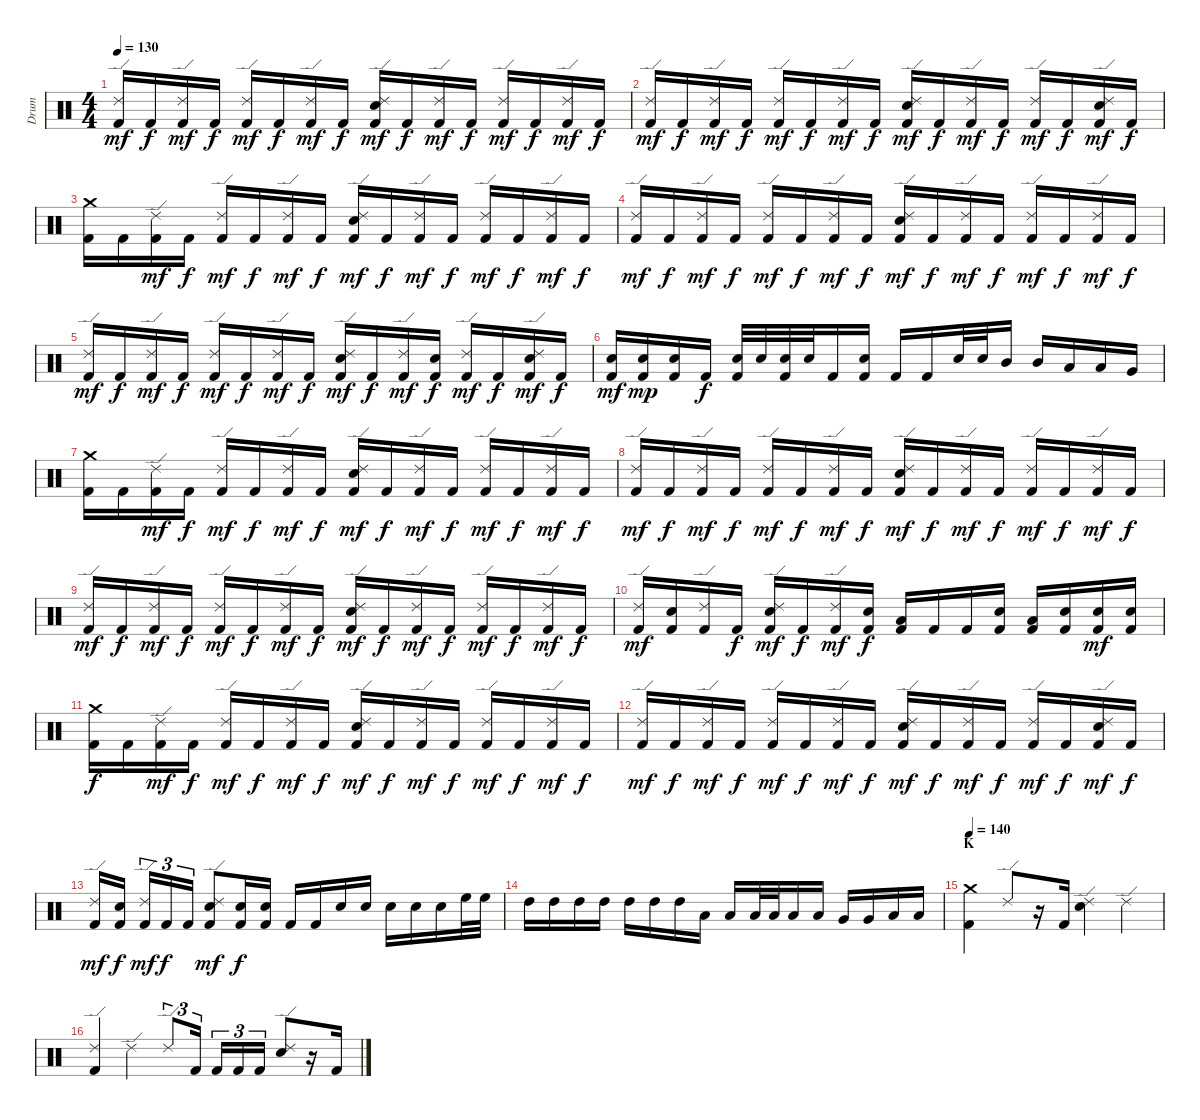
\track ("Drum" "Drum") {instrument percussion}
\staff {score}
\articulation defaults
\ts (4 4)
\tempo 130
\clef neutral
\ks c
("Ride (edge) 2" "Kick (hit) 2").16{dy mf} "Kick (hit) 2".16{dy f} ("Ride (edge) 2" "Kick (hit) 2").16{dy mf} "Kick (hit) 2".16{dy f} ("Ride (edge) 2" "Kick (hit) 2").16{dy mf} "Kick (hit) 2".16{dy f} ("Ride (edge) 2" "Kick (hit) 2").16{dy mf} "Kick (hit) 2".16{dy f} ("Ride (edge) 2" "Electric Snare (hit)" "Kick (hit) 2").16{dy mf} "Kick (hit) 2".16{dy f} ("Ride (edge) 2" "Kick (hit) 2").16{dy mf} "Kick (hit) 2".16{dy f} ("Ride (edge) 2" "Kick (hit) 2").16{dy mf} "Kick (hit) 2".16{dy f} ("Ride (edge) 2" "Kick (hit) 2").16{dy mf} "Kick (hit) 2".16{dy f} |
("Ride (edge) 2" "Kick (hit) 2").16{dy mf} "Kick (hit) 2".16{dy f} ("Ride (edge) 2" "Kick (hit) 2").16{dy mf} "Kick (hit) 2".16{dy f} ("Ride (edge) 2" "Kick (hit) 2").16{dy mf} "Kick (hit) 2".16{dy f} ("Ride (edge) 2" "Kick (hit) 2").16{dy mf} "Kick (hit) 2".16{dy f} ("Ride (edge) 2" "Electric Snare (hit)" "Kick (hit) 2").16{dy mf} "Kick (hit) 2".16{dy f} ("Ride (edge) 2" "Kick (hit) 2").16{dy mf} "Kick (hit) 2".16{dy f} ("Ride (edge) 2" "Kick (hit) 2").16{dy mf} "Kick (hit) 2".16{dy f} ("Ride (edge) 2" "Electric Snare (hit)" "Kick (hit) 2").16{dy mf} "Kick (hit) 2".16{dy f} |
("Crash medium (hit)" "Kick (hit) 2").16 "Kick (hit) 2".16 ("Ride (edge) 2" "Kick (hit) 2").16{dy mf} "Kick (hit) 2".16{dy f} ("Ride (edge) 2" "Kick (hit) 2").16{dy mf} "Kick (hit) 2".16{dy f} ("Ride (edge) 2" "Kick (hit) 2").16{dy mf} "Kick (hit) 2".16{dy f} ("Ride (edge) 2" "Electric Snare (hit)" "Kick (hit) 2").16{dy mf} "Kick (hit) 2".16{dy f} ("Ride (edge) 2" "Kick (hit) 2").16{dy mf} "Kick (hit) 2".16{dy f} ("Ride (edge) 2" "Kick (hit) 2").16{dy mf} "Kick (hit) 2".16{dy f} ("Ride (edge) 2" "Kick (hit) 2").16{dy mf} "Kick (hit) 2".16{dy f} |
("Ride (edge) 2" "Kick (hit) 2").16{dy mf} "Kick (hit) 2".16{dy f} ("Ride (edge) 2" "Kick (hit) 2").16{dy mf} "Kick (hit) 2".16{dy f} ("Ride (edge) 2" "Kick (hit) 2").16{dy mf} "Kick (hit) 2".16{dy f} ("Ride (edge) 2" "Kick (hit) 2").16{dy mf} "Kick (hit) 2".16{dy f} ("Ride (edge) 2" "Electric Snare (hit)" "Kick (hit) 2").16{dy mf} "Kick (hit) 2".16{dy f} ("Ride (edge) 2" "Kick (hit) 2").16{dy mf} "Kick (hit) 2".16{dy f} ("Ride (edge) 2" "Kick (hit) 2").16{dy mf} "Kick (hit) 2".16{dy f} ("Ride (edge) 2" "Kick (hit) 2").16{dy mf} "Kick (hit) 2".16{dy f} |
("Ride (edge) 2" "Kick (hit) 2").16{dy mf} "Kick (hit) 2".16{dy f} ("Ride (edge) 2" "Kick (hit) 2").16{dy mf} "Kick (hit) 2".16{dy f} ("Ride (edge) 2" "Kick (hit) 2").16{dy mf} "Kick (hit) 2".16{dy f} ("Ride (edge) 2" "Kick (hit) 2").16{dy mf} "Kick (hit) 2".16{dy f} ("Ride (edge) 2" "Electric Snare (hit)" "Kick (hit) 2").16{dy mf} "Kick (hit) 2".16{dy f} ("Ride (edge) 2" "Kick (hit) 2").16{dy mf} ("Electric Snare (hit)" "Kick (hit) 2").16{dy f} ("Ride (edge) 2" "Kick (hit) 2").16{dy mf} "Kick (hit) 2".16{dy f} ("Ride (edge) 2" "Electric Snare (hit)" "Kick (hit) 2").16{dy mf} "Kick (hit) 2".16{dy f} |
("Electric Snare (hit)" "Kick (hit) 2").16{dy mf} ("Electric Snare (hit)" "Kick (hit) 2").16{dy mp} ("Electric Snare (hit)" "Kick (hit) 2").16 "Kick (hit) 2".16{dy f} ("Electric Snare (hit)" "Kick (hit) 2").32 "Electric Snare (hit)".32 ("Electric Snare (hit)" "Kick (hit) 2").32 "Electric Snare (hit)".32 "Kick (hit) 2".16 ("Electric Snare (hit)" "Kick (hit) 2").16 "Kick (hit) 2".16 "Kick (hit) 2".16 "Electric Snare (hit)".32 "Electric Snare (hit)".32 "Mid Tom (hit)".16 "Mid Tom (hit)".16 "Low Tom (hit)".16 "Low Tom (hit)".16 "Very Low Tom (hit)".16 |
("Crash medium (hit)" "Kick (hit) 2").16 "Kick (hit) 2".16 ("Ride (edge) 2" "Kick (hit) 2").16{dy mf} "Kick (hit) 2".16{dy f} ("Ride (edge) 2" "Kick (hit) 2").16{dy mf} "Kick (hit) 2".16{dy f} ("Ride (edge) 2" "Kick (hit) 2").16{dy mf} "Kick (hit) 2".16{dy f} ("Ride (edge) 2" "Electric Snare (hit)" "Kick (hit) 2").16{dy mf} "Kick (hit) 2".16{dy f} ("Ride (edge) 2" "Kick (hit) 2").16{dy mf} "Kick (hit) 2".16{dy f} ("Ride (edge) 2" "Kick (hit) 2").16{dy mf} "Kick (hit) 2".16{dy f} ("Ride (edge) 2" "Kick (hit) 2").16{dy mf} "Kick (hit) 2".16{dy f} |
("Ride (edge) 2" "Kick (hit) 2").16{dy mf} "Kick (hit) 2".16{dy f} ("Ride (edge) 2" "Kick (hit) 2").16{dy mf} "Kick (hit) 2".16{dy f} ("Ride (edge) 2" "Kick (hit) 2").16{dy mf} "Kick (hit) 2".16{dy f} ("Ride (edge) 2" "Kick (hit) 2").16{dy mf} "Kick (hit) 2".16{dy f} ("Ride (edge) 2" "Electric Snare (hit)" "Kick (hit) 2").16{dy mf} "Kick (hit) 2".16{dy f} ("Ride (edge) 2" "Kick (hit) 2").16{dy mf} "Kick (hit) 2".16{dy f} ("Ride (edge) 2" "Kick (hit) 2").16{dy mf} "Kick (hit) 2".16{dy f} ("Ride (edge) 2" "Kick (hit) 2").16{dy mf} "Kick (hit) 2".16{dy f} |
("Ride (edge) 2" "Kick (hit) 2").16{dy mf} "Kick (hit) 2".16{dy f} ("Ride (edge) 2" "Kick (hit) 2").16{dy mf} "Kick (hit) 2".16{dy f} ("Ride (edge) 2" "Kick (hit) 2").16{dy mf} "Kick (hit) 2".16{dy f} ("Ride (edge) 2" "Kick (hit) 2").16{dy mf} "Kick (hit) 2".16{dy f} ("Ride (edge) 2" "Electric Snare (hit)" "Kick (hit) 2").16{dy mf} "Kick (hit) 2".16{dy f} ("Ride (edge) 2" "Kick (hit) 2").16{dy mf} "Kick (hit) 2".16{dy f} ("Ride (edge) 2" "Kick (hit) 2").16{dy mf} "Kick (hit) 2".16{dy f} ("Ride (edge) 2" "Kick (hit) 2").16{dy mf} "Kick (hit) 2".16{dy f} |
("Ride (edge) 2" "Kick (hit) 2").16{dy mf} ("Electric Snare (hit)" "Kick (hit) 2").16 ("Ride (edge) 2" "Kick (hit) 2").16 "Kick (hit) 2".16{dy f} ("Ride (edge) 2" "Electric Snare (hit)" "Kick (hit) 2").16{dy mf} "Kick (hit) 2".16{dy f} ("Ride (edge) 2" "Kick (hit) 2").16{dy mf} ("Electric Snare (hit)" "Kick (hit) 2").16{dy f} ("Low Tom (hit)" "Kick (hit) 2").16 "Kick (hit) 2".16 "Kick (hit) 2".16 ("Electric Snare (hit)" "Kick (hit) 2").16 ("Low Tom (hit)" "Kick (hit) 2").16 ("Electric Snare (hit)" "Kick (hit) 2").16 ("Electric Snare (hit)" "Kick (hit) 2").16{dy mf} ("Electric Snare (hit)" "Kick (hit) 2").16 |
("Crash medium (hit)" "Kick (hit) 2").16{dy f} "Kick (hit) 2".16 ("Ride (edge) 2" "Kick (hit) 2").16{dy mf} "Kick (hit) 2".16{dy f} ("Ride (edge) 2" "Kick (hit) 2").16{dy mf} "Kick (hit) 2".16{dy f} ("Ride (edge) 2" "Kick (hit) 2").16{dy mf} "Kick (hit) 2".16{dy f} ("Ride (edge) 2" "Electric Snare (hit)" "Kick (hit) 2").16{dy mf} "Kick (hit) 2".16{dy f} ("Ride (edge) 2" "Kick (hit) 2").16{dy mf} "Kick (hit) 2".16{dy f} ("Ride (edge) 2" "Kick (hit) 2").16{dy mf} "Kick (hit) 2".16{dy f} ("Ride (edge) 2" "Kick (hit) 2").16{dy mf} "Kick (hit) 2".16{dy f} |
("Ride (edge) 2" "Kick (hit) 2").16{dy mf} "Kick (hit) 2".16{dy f} ("Ride (edge) 2" "Kick (hit) 2").16{dy mf} "Kick (hit) 2".16{dy f} ("Ride (edge) 2" "Kick (hit) 2").16{dy mf} "Kick (hit) 2".16{dy f} ("Ride (edge) 2" "Kick (hit) 2").16{dy mf} "Kick (hit) 2".16{dy f} ("Ride (edge) 2" "Electric Snare (hit)" "Kick (hit) 2").16{dy mf} "Kick (hit) 2".16{dy f} ("Ride (edge) 2" "Kick (hit) 2").16{dy mf} "Kick (hit) 2".16{dy f} ("Ride (edge) 2" "Kick (hit) 2").16{dy mf} "Kick (hit) 2".16{dy f} ("Ride (edge) 2" "Electric Snare (hit)" "Kick (hit) 2").16{dy mf} "Kick (hit) 2".16{dy f} |
("Ride (edge) 2" "Kick (hit) 2").16{dy mf} ("Electric Snare (hit)" "Kick (hit) 2").16{dy f} ("Ride (edge) 2" "Kick (hit) 2").16{tu (3 2) dy mf} "Kick (hit) 2".16{tu (3 2) dy f} "Kick (hit) 2".16{tu (3 2)} ("Ride (edge) 2" "Electric Snare (hit)" "Kick (hit) 2").8{dy mf} ("Electric Snare (hit)" "Kick (hit) 2").16{dy f} ("Electric Snare (hit)" "Kick (hit) 2").16 "Kick (hit) 2".16 "Kick (hit) 2".16 "Electric Snare (hit)".16 "Electric Snare (hit)".16 "Electric Snare (hit)".16 "Electric Snare (hit)".16 "Electric Snare (hit)".16 "High Floor Tom (hit)".32 "High Floor Tom (hit)".32 |
"High Tom (hit)".16 "High Tom (hit)".16 "High Tom (hit)".16 "High Tom (hit)".16 "High Tom (hit)".16 "High Tom (hit)".16 "High Tom (hit)".16 "Low Tom (hit)".16 "Low Tom (hit)".16 "Low Tom (hit)".32 "Low Tom (hit)".32 "Low Tom (hit)".16 "Low Tom (hit)".16 "Very Low Tom (hit)".16 "Very Low Tom (hit)".16 "Low Floor Tom (hit)".16 "Low Floor Tom (hit)".16 |
\section ("" "K")
\tempo 140
("Crash medium (hit)" "Kick (hit) 2").4 "Ride (edge) 2".8 r.16 "Kick (hit) 2".16 ("Ride (edge) 2" "Electric Snare (hit)").4 "Ride (edge) 2".4 |
("Ride (edge) 2" "Kick (hit) 2").4 "Ride (edge) 2".4 "Ride (edge) 2".8{tu (3 2)} "Kick (hit) 2".16{tu (3 2)} "Kick (hit) 2".16{tu (3 2)} "Kick (hit) 2".16{tu (3 2)} "Kick (hit) 2".16{tu (3 2)} ("Ride (edge) 2" "Electric Snare (hit)").8 r.16 "Kick (hit) 2".16
